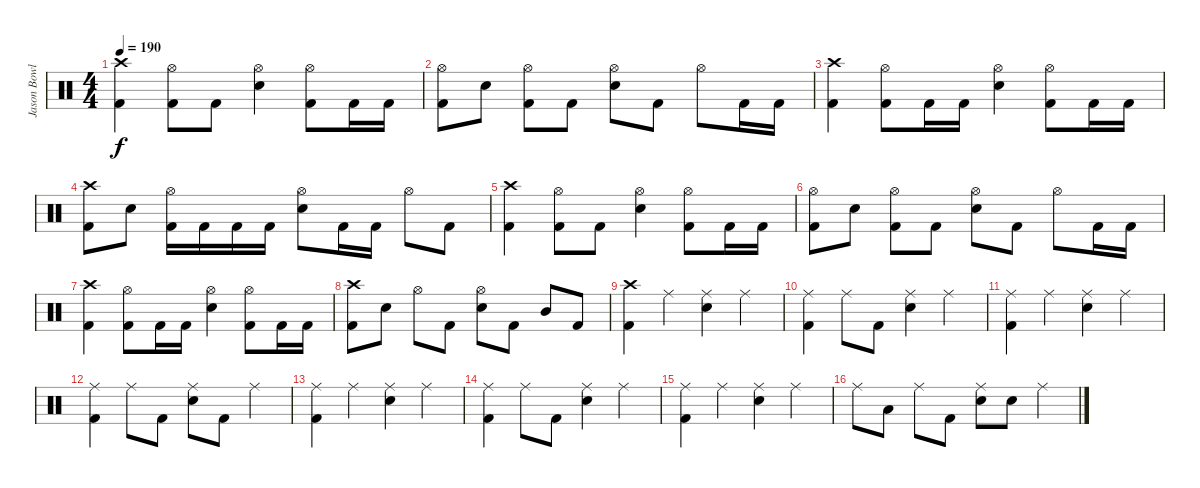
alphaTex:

\track ("Jason Bowld" "Jason Bowl") {instrument percussion}
\staff {score}
\articulation defaults
\ts (4 4)
\tempo 190
\clef neutral
\ks c
("Crash high (hit)" "Kick (hit) 2").4{dy f} ("Hi-Hat (open)" "Kick (hit) 2").8 "Kick (hit) 2".8 ("Hi-Hat (open)" "Snare (hit) 2").4 ("Hi-Hat (open)" "Kick (hit) 2").8 "Kick (hit) 2".16 "Kick (hit) 2".16 |
("Hi-Hat (open)" "Kick (hit) 2").8 "Snare (hit) 2".8 ("Hi-Hat (open)" "Kick (hit) 2").8 "Kick (hit) 2".8 ("Hi-Hat (open)" "Snare (hit) 2").8 "Kick (hit) 2".8 "Hi-Hat (open)".8 "Kick (hit) 2".16 "Kick (hit) 2".16 |
("Crash high (hit)" "Kick (hit) 2").4 ("Hi-Hat (open)" "Kick (hit) 2").8 "Kick (hit) 2".16 "Kick (hit) 2".16 ("Hi-Hat (open)" "Snare (hit) 2").4 ("Hi-Hat (open)" "Kick (hit) 2").8 "Kick (hit) 2".16 "Kick (hit) 2".16 |
("Crash high (hit)" "Kick (hit) 2").8 "Snare (hit) 2".8 ("Hi-Hat (open)" "Kick (hit) 2").16 "Kick (hit) 2".16 "Kick (hit) 2".16 "Kick (hit) 2".16 ("Hi-Hat (open)" "Snare (hit) 2").8 "Kick (hit) 2".16 "Kick (hit) 2".16 "Hi-Hat (open)".8 "Kick (hit) 2".8 |
("Crash high (hit)" "Kick (hit) 2").4 ("Hi-Hat (open)" "Kick (hit) 2").8 "Kick (hit) 2".8 ("Hi-Hat (open)" "Snare (hit) 2").4 ("Hi-Hat (open)" "Kick (hit) 2").8 "Kick (hit) 2".16 "Kick (hit) 2".16 |
("Hi-Hat (open)" "Kick (hit) 2").8 "Snare (hit) 2".8 ("Hi-Hat (open)" "Kick (hit) 2").8 "Kick (hit) 2".8 ("Hi-Hat (open)" "Snare (hit) 2").8 "Kick (hit) 2".8 "Hi-Hat (open)".8 "Kick (hit) 2".16 "Kick (hit) 2".16 |
("Crash high (hit)" "Kick (hit) 2").4 ("Hi-Hat (open)" "Kick (hit) 2").8 "Kick (hit) 2".16 "Kick (hit) 2".16 ("Hi-Hat (open)" "Snare (hit) 2").4 ("Hi-Hat (open)" "Kick (hit) 2").8 "Kick (hit) 2".16 "Kick (hit) 2".16 |
("Crash high (hit)" "Kick (hit) 2").8 "Snare (hit) 2".8 "Hi-Hat (open)".8 "Kick (hit) 2".8 ("Hi-Hat (open)" "Snare (hit) 2").8 "Kick (hit) 2".8 "Mid Tom (hit)".8 "Kick (hit) 2".8 |
("Crash high (hit)" "Kick (hit) 2").4 "Ride (middle)".4 ("Ride (middle)" "Snare (hit) 2").4 "Ride (middle)".4 |
("Ride (middle)" "Kick (hit) 2").4 "Ride (middle)".8 "Kick (hit) 2".8 ("Ride (middle)" "Snare (hit) 2").4 "Ride (middle)".4 |
("Ride (middle)" "Kick (hit) 2").4 "Ride (middle)".4 ("Ride (middle)" "Snare (hit) 2").4 "Ride (middle)".4 |
("Ride (middle)" "Kick (hit) 2").4 "Ride (middle)".8 "Kick (hit) 2".8 ("Ride (middle)" "Snare (hit) 2").8 "Kick (hit) 2".8 "Ride (middle)".4 |
("Ride (middle)" "Kick (hit) 2").4 "Ride (middle)".4 ("Ride (middle)" "Snare (hit) 2").4 "Ride (middle)".4 |
("Ride (middle)" "Kick (hit) 2").4 "Ride (middle)".8 "Kick (hit) 2".8 ("Ride (middle)" "Snare (hit) 2").4 "Ride (middle)".4 |
("Ride (middle)" "Kick (hit) 2").4 "Ride (middle)".4 ("Ride (middle)" "Snare (hit) 2").4 "Ride (middle)".4 |
"Ride (middle)".8 "Low Tom (hit)".8 "Ride (middle)".8 "Kick (hit) 2".8 ("Ride (middle)" "Snare (hit) 2").8 "Snare (hit) 2".8 "Ride (middle)".4
